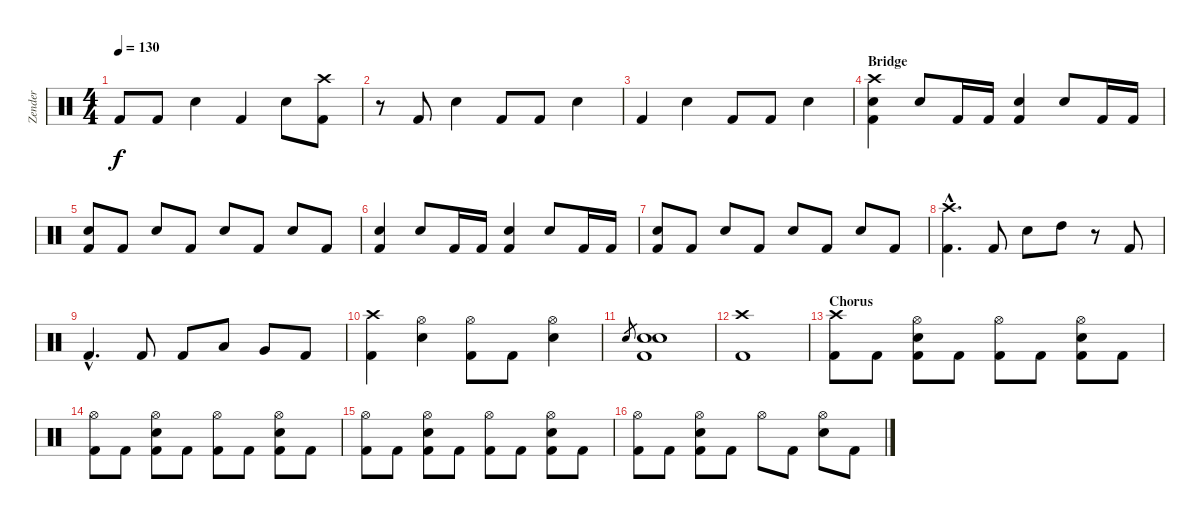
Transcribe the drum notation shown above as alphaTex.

\track ("Zender" "Zender") {instrument percussion}
\staff {score}
\articulation defaults
\ts (4 4)
\tempo 130
\clef neutral
\ks c "Kick (hit) 2".8{dy f} "Kick (hit) 2".8 "Electric Snare (hit)".4 "Kick (hit) 2".4 "Electric Snare (hit)".8
("Crash high (hit)" "Kick (hit) 2").8 |
r.8 "Kick (hit) 2".8 "Electric Snare (hit)".4 "Kick (hit) 2".8 "Kick (hit) 2".8 "Electric Snare (hit)".4 |
"Kick (hit) 2".4 "Electric Snare (hit)".4 "Kick (hit) 2".8 "Kick (hit) 2".8 "Electric Snare (hit)".4 |
\section ("" "Bridge")
("Crash high (hit)" "Electric Snare (hit)" "Kick (hit) 2").4 "Electric Snare (hit)".8 "Kick (hit) 2".16 "Kick (hit) 2".16 ("Electric Snare (hit)" "Kick (hit) 2").4 "Electric Snare (hit)".8 "Kick (hit) 2".16 "Kick (hit) 2".16 |
("Electric Snare (hit)" "Kick (hit) 2").8 "Kick (hit) 2".8 "Electric Snare (hit)".8 "Kick (hit) 2".8 "Electric Snare (hit)".8 "Kick (hit) 2".8 "Electric Snare (hit)".8 "Kick (hit) 2".8 |
("Electric Snare (hit)" "Kick (hit) 2").4 "Electric Snare (hit)".8 "Kick (hit) 2".16 "Kick (hit) 2".16 ("Electric Snare (hit)" "Kick (hit) 2").4 "Electric Snare (hit)".8 "Kick (hit) 2".16 "Kick (hit) 2".16 |
("Electric Snare (hit)" "Kick (hit) 2").8 "Kick (hit) 2".8 "Electric Snare (hit)".8 "Kick (hit) 2".8 "Electric Snare (hit)".8 "Kick (hit) 2".8 "Electric Snare (hit)".8 "Kick (hit) 2".8 |
("Crash high (hit)"{hac} "Kick (hit) 2"{hac}).4{d} "Kick (hit) 2".8 "Electric Snare (hit)".8 "High Tom (hit)".8 r.8 "Kick (hit) 2".8 |
"Kick (hit) 2"{hac}.4{d} "Kick (hit) 2".8 "Kick (hit) 2".8 "Low Tom (hit)".8 "Very Low Tom (hit)".8 "Kick (hit) 2".8 |
("Crash high (hit)" "Kick (hit) 2").4 ("Electric Snare (hit)" "Hi-Hat (open)").4 ("Hi-Hat (open)" "Kick (hit) 2").8 "Kick (hit) 2".8 ("Electric Snare (hit)" "Hi-Hat (open)").4 |
"Electric Snare (hit)".8{gr} ("Electric Snare (hit)" "Electric Snare (hit)" "Kick (hit) 2").1 |
("Crash high (hit)" "Kick (hit) 2").1 |
\section ("" "Chorus")
("Crash high (hit)" "Kick (hit) 2").8 "Kick (hit) 2".8 ("Electric Snare (hit)" "Hi-Hat (open)" "Kick (hit) 2").8 "Kick (hit) 2".8 ("Hi-Hat (open)" "Kick (hit) 2").8 "Kick (hit) 2".8 ("Electric Snare (hit)" "Hi-Hat (open)" "Kick (hit) 2").8 "Kick (hit) 2".8 |
("Hi-Hat (open)" "Kick (hit) 2").8 "Kick (hit) 2".8 ("Electric Snare (hit)" "Hi-Hat (open)" "Kick (hit) 2").8 "Kick (hit) 2".8 ("Hi-Hat (open)" "Kick (hit) 2").8 "Kick (hit) 2".8 ("Electric Snare (hit)" "Hi-Hat (open)" "Kick (hit) 2").8 "Kick (hit) 2".8 |
("Hi-Hat (open)" "Kick (hit) 2").8 "Kick (hit) 2".8 ("Electric Snare (hit)" "Hi-Hat (open)" "Kick (hit) 2").8 "Kick (hit) 2".8 ("Hi-Hat (open)" "Kick (hit) 2").8 "Kick (hit) 2".8 ("Electric Snare (hit)" "Hi-Hat (open)" "Kick (hit) 2").8 "Kick (hit) 2".8 |
("Hi-Hat (open)" "Kick (hit) 2").8 "Kick (hit) 2".8 ("Electric Snare (hit)" "Hi-Hat (open)" "Kick (hit) 2").8 "Kick (hit) 2".8 "Hi-Hat (open)".8 "Kick (hit) 2".8 ("Electric Snare (hit)" "Hi-Hat (open)").8 "Kick (hit) 2".8
